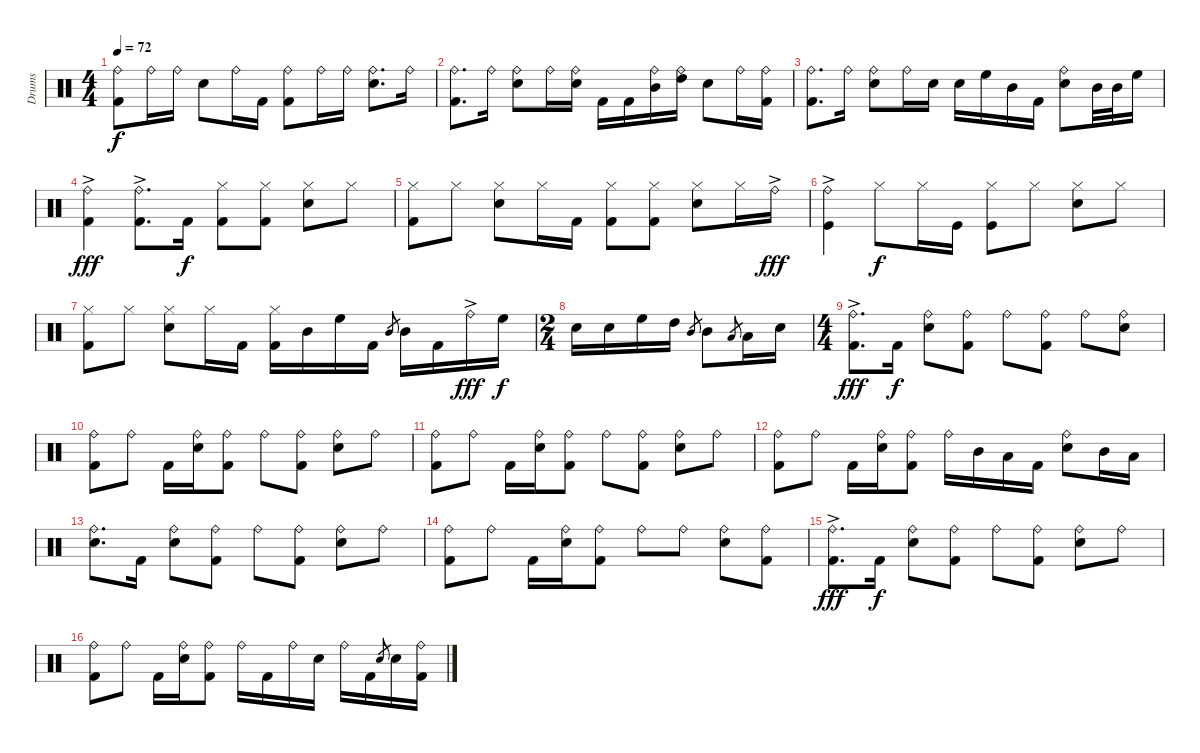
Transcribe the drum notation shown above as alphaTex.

\track ("Drums" "Drums") {instrument percussion}
\staff {score}
\articulation defaults
\ts (4 4)
\tempo 72
\clef neutral
\ks c
("Kick (hit) 2" "Ride (bell)").8{dy f} "Ride (bell)".16 "Ride (bell)".16 "Snare (hit) 2".8 "Ride (bell)".16 "Kick (hit) 2".16 ("Kick (hit) 2" "Ride (bell)").8 "Ride (bell)".16 "Ride (bell)".16 ("Snare (hit) 2" "Ride (bell)").8{d} "Ride (bell)".16 |
("Kick (hit) 2" "Ride (bell)").8{d} "Ride (bell)".16 ("Snare (hit) 2" "Ride (bell)").8 "Ride (bell)".16 ("Snare (hit) 2" "Ride (bell)").16 "Kick (hit) 2".16 "Kick (hit) 2".16 ("Mid Tom (hit)" "Ride (bell)").16 ("High Tom (hit)" "Ride (bell)").16 "Snare (hit) 2".8 "Ride (bell)".16 ("Kick (hit) 2" "Ride (bell)").16 |
("Kick (hit) 2" "Ride (bell)").8{d} "Ride (bell)".16 ("Snare (hit) 2" "Ride (bell)").8 "Ride (bell)".16 "Snare (hit) 2".16 "Snare (hit) 2".16 "High Floor Tom (hit)".16 "Mid Tom (hit)".16 "Kick (hit) 2".16 ("Snare (hit) 2" "Ride (bell)").8 "Mid Tom (hit)".32 "Mid Tom (hit)".32 "High Floor Tom (hit)".16 |
("Kick (hit) 2" "Ride (bell)"{ac}).4{dy fff} ("Kick (hit) 2"{ac} "Ride (bell)").8{d} "Kick (hit) 2".16{dy f} ("Kick (hit) 2" "Hi-Hat (closed)").8 ("Kick (hit) 2" "Hi-Hat (closed)").8 ("Snare (hit) 2" "Hi-Hat (closed)").8 "Hi-Hat (closed)".8 |
("Kick (hit) 2" "Hi-Hat (closed)").8 "Hi-Hat (closed)".8 ("Snare (hit) 2" "Hi-Hat (closed)").8 "Hi-Hat (closed)".16 "Kick (hit) 2".16 ("Kick (hit) 2" "Hi-Hat (closed)").8 ("Kick (hit) 2" "Hi-Hat (closed)").8 ("Snare (hit) 2" "Hi-Hat (closed)").8 "Hi-Hat (closed)".16 "Ride (bell)"{ac}.16{dy fff} |
("Kick (hit)" "Ride (bell)"{ac}).4 "Hi-Hat (closed)".8{dy f} "Hi-Hat (closed)".16 "Kick (hit)".16 ("Kick (hit)" "Hi-Hat (closed)").8 "Hi-Hat (closed)".8 ("Snare (hit) 2" "Hi-Hat (closed)").8 "Hi-Hat (closed)".8 |
("Kick (hit) 2" "Hi-Hat (closed)").8 "Hi-Hat (closed)".8 ("Snare (hit) 2" "Hi-Hat (closed)").8 "Hi-Hat (closed)".16 "Kick (hit) 2".16 ("Kick (hit) 2" "Hi-Hat (closed)").16 "Mid Tom (hit)".16 "High Floor Tom (hit)".16 "Kick (hit) 2".16 "Mid Tom (hit)".8{gr} "Mid Tom (hit)".16 "Kick (hit) 2".16 "Ride (bell)"{ac}.16{dy fff} "High Floor Tom (hit)".16{dy f} |
\ts (2 4)
"Snare (hit) 2".16 "Snare (hit) 2".16 "High Floor Tom (hit)".16 "High Tom (hit)".16 "Mid Tom (hit)".8{gr} "Mid Tom (hit)".8 "Low Tom (hit)".8{gr} "Low Tom (hit)".16 "Snare (hit) 2".16 |
\ts (4 4)
("Kick (hit) 2" "Ride (bell)"{ac}).8{d dy fff} "Kick (hit) 2".16{dy f} ("Snare (hit) 2" "Ride (bell)").8 ("Kick (hit) 2" "Ride (bell)").8 "Ride (bell)".8 ("Kick (hit) 2" "Ride (bell)").8 "Ride (bell)".8 ("Snare (hit) 2" "Ride (bell)").8 |
("Kick (hit) 2" "Ride (bell)").8 "Ride (bell)".8 "Kick (hit) 2".16 ("Snare (hit) 2" "Ride (bell)").16 ("Kick (hit) 2" "Ride (bell)").8 "Ride (bell)".8 ("Kick (hit) 2" "Ride (bell)").8 ("Snare (hit) 2" "Ride (bell)").8 "Ride (bell)".8 |
("Kick (hit) 2" "Ride (bell)").8 "Ride (bell)".8 "Kick (hit) 2".16 ("Snare (hit) 2" "Ride (bell)").16 ("Kick (hit) 2" "Ride (bell)").8 "Ride (bell)".8 ("Kick (hit) 2" "Ride (bell)").8 ("Snare (hit) 2" "Ride (bell)").8 "Ride (bell)".8 |
("Kick (hit) 2" "Ride (bell)").8 "Ride (bell)".8 "Kick (hit) 2".16 ("Snare (hit) 2" "Ride (bell)").16 ("Kick (hit) 2" "Ride (bell)").8 "Ride (bell)".16 "Mid Tom (hit)".16 "Low Tom (hit)".16 "Kick (hit) 2".16 ("Snare (hit) 2" "Ride (bell)").8 "Mid Tom (hit)".16 "Low Tom (hit)".16 |
("Snare (hit) 2" "Ride (bell)").8{d} "Kick (hit) 2".16 ("Snare (hit) 2" "Ride (bell)").8 ("Kick (hit) 2" "Ride (bell)").8 "Ride (bell)".8 ("Kick (hit) 2" "Ride (bell)").8 ("Snare (hit) 2" "Ride (bell)").8 "Ride (bell)".8 |
("Kick (hit) 2" "Ride (bell)").8 "Ride (bell)".8 "Kick (hit) 2".16 ("Snare (hit) 2" "Ride (bell)").16 ("Kick (hit) 2" "Ride (bell)").8 "Ride (bell)".8 "Ride (bell)".8 ("Snare (hit) 2" "Ride (bell)").8 ("Kick (hit) 2" "Ride (bell)").8 |
("Kick (hit) 2" "Ride (bell)"{ac}).8{d dy fff} "Kick (hit) 2".16{dy f} ("Snare (hit) 2" "Ride (bell)").8 ("Kick (hit) 2" "Ride (bell)").8 "Ride (bell)".8 ("Kick (hit) 2" "Ride (bell)").8 ("Snare (hit) 2" "Ride (bell)").8 "Ride (bell)".8 |
("Kick (hit) 2" "Ride (bell)").8 "Ride (bell)".8 "Kick (hit) 2".16 ("Snare (hit) 2" "Ride (bell)").16 ("Kick (hit) 2" "Ride (bell)").8 "Ride (bell)".16 "Kick (hit) 2".16 "Ride (bell)".16 "Snare (hit) 2".16 "Ride (bell)".16 "Kick (hit) 2".16 "Snare (hit) 2".8{gr} "Snare (hit) 2".16 ("Kick (hit) 2" "Ride (bell)").16
